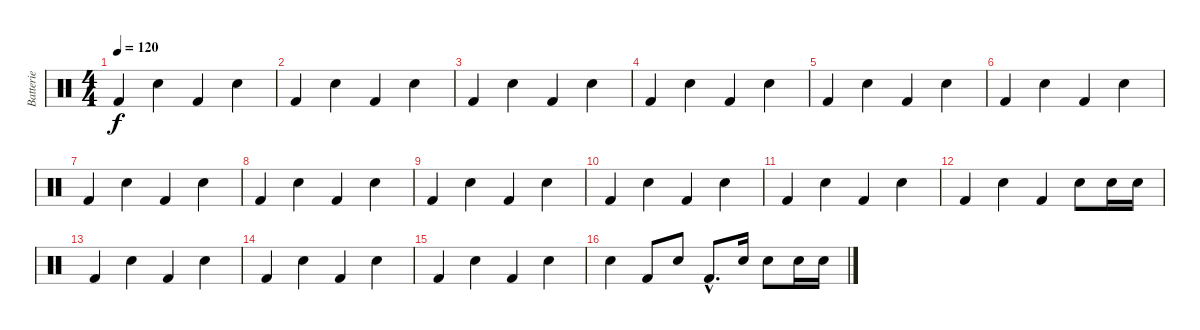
\track ("Batterie" "Batterie") {instrument percussion}
\staff {score}
\articulation defaults
\ts (4 4)
\tempo 120
\clef neutral
\ks c "Kick (hit) 2".4{dy f} "Electric Snare (hit)".4 "Kick (hit) 2".4 "Electric Snare (hit)".4
|
"Kick (hit) 2".4 "Electric Snare (hit)".4 "Kick (hit) 2".4 "Electric Snare (hit)".4 |
"Kick (hit) 2".4 "Electric Snare (hit)".4 "Kick (hit) 2".4 "Electric Snare (hit)".4 |
"Kick (hit) 2".4 "Electric Snare (hit)".4 "Kick (hit) 2".4 "Electric Snare (hit)".4 |
"Kick (hit) 2".4 "Electric Snare (hit)".4 "Kick (hit) 2".4 "Electric Snare (hit)".4 |
"Kick (hit) 2".4 "Electric Snare (hit)".4 "Kick (hit) 2".4 "Electric Snare (hit)".4 |
"Kick (hit) 2".4 "Electric Snare (hit)".4 "Kick (hit) 2".4 "Electric Snare (hit)".4 |
"Kick (hit) 2".4 "Electric Snare (hit)".4 "Kick (hit) 2".4 "Electric Snare (hit)".4 |
"Kick (hit) 2".4 "Electric Snare (hit)".4 "Kick (hit) 2".4 "Electric Snare (hit)".4 |
"Kick (hit) 2".4 "Electric Snare (hit)".4 "Kick (hit) 2".4 "Electric Snare (hit)".4 |
"Kick (hit) 2".4 "Electric Snare (hit)".4 "Kick (hit) 2".4 "Electric Snare (hit)".4 |
"Kick (hit) 2".4 "Electric Snare (hit)".4 "Kick (hit) 2".4 "Electric Snare (hit)".8 "Electric Snare (hit)".16 "Electric Snare (hit)".16 |
"Kick (hit) 2".4 "Electric Snare (hit)".4 "Kick (hit) 2".4 "Electric Snare (hit)".4 |
"Kick (hit) 2".4 "Electric Snare (hit)".4 "Kick (hit) 2".4 "Electric Snare (hit)".4 |
"Kick (hit) 2".4 "Electric Snare (hit)".4 "Kick (hit) 2".4 "Electric Snare (hit)".4 |
"Electric Snare (hit)".4 "Kick (hit) 2".8 "Electric Snare (hit)".8 "Kick (hit) 2"{hac}.8{d} "Electric Snare (hit)".16 "Electric Snare (hit)".8 "Electric Snare (hit)".16 "Electric Snare (hit)".16
